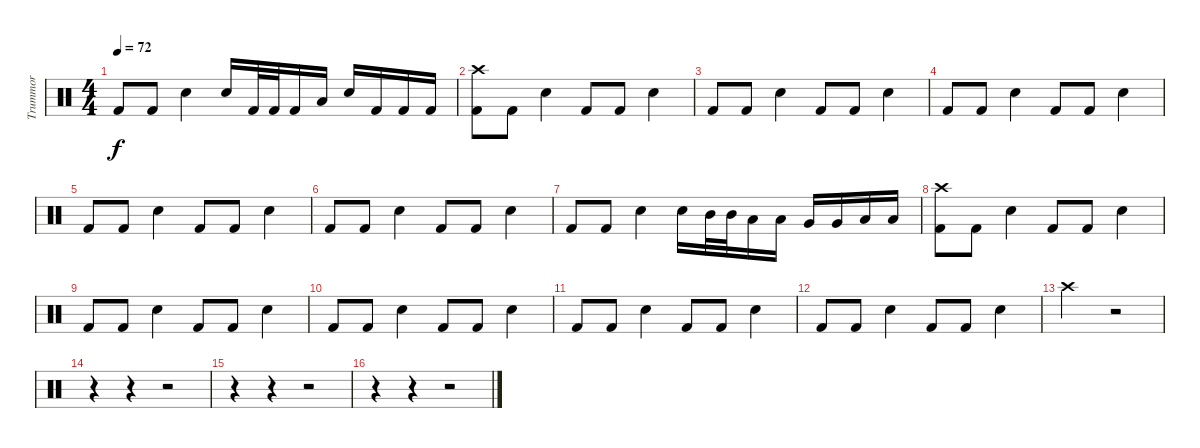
\track ("Trummor" "Trummor") {instrument percussion}
\staff {score}
\articulation defaults
\ts (4 4)
\tempo 72
\clef neutral
\ks c "Kick (hit) 2".8{dy f} "Kick (hit) 2".8 "Snare (hit) 2".4 "Snare (hit) 2".16 "Kick (hit) 2".32 "Kick (hit) 2".32 "Kick (hit) 2".16 "Low Floor Tom (hit)".16 "Snare (hit) 2".16 "Kick (hit) 2".16 "Kick (hit) 2".16 "Kick (hit) 2".16
|
("Crash high (hit)" "Kick (hit) 2").8 "Kick (hit) 2".8 "Snare (hit) 2".4 "Kick (hit) 2".8 "Kick (hit) 2".8 "Snare (hit) 2".4 |
"Kick (hit) 2".8 "Kick (hit) 2".8 "Snare (hit) 2".4 "Kick (hit) 2".8 "Kick (hit) 2".8 "Snare (hit) 2".4 |
"Kick (hit) 2".8 "Kick (hit) 2".8 "Snare (hit) 2".4 "Kick (hit) 2".8 "Kick (hit) 2".8 "Snare (hit) 2".4 |
"Kick (hit) 2".8 "Kick (hit) 2".8 "Snare (hit) 2".4 "Kick (hit) 2".8 "Kick (hit) 2".8 "Snare (hit) 2".4 |
"Kick (hit) 2".8 "Kick (hit) 2".8 "Snare (hit) 2".4 "Kick (hit) 2".8 "Kick (hit) 2".8 "Snare (hit) 2".4 |
"Kick (hit) 2".8 "Kick (hit) 2".8 "Snare (hit) 2".4 "Snare (hit) 2".16 "Mid Tom (hit)".32 "Mid Tom (hit)".32 "Low Tom (hit)".16 "Low Tom (hit)".16 "Very Low Tom (hit)".16 "Very Low Tom (hit)".16 "Low Floor Tom (hit)".16 "Low Floor Tom (hit)".16 |
("Crash high (hit)" "Kick (hit) 2").8 "Kick (hit) 2".8 "Snare (hit) 2".4 "Kick (hit) 2".8 "Kick (hit) 2".8 "Snare (hit) 2".4 |
"Kick (hit) 2".8 "Kick (hit) 2".8 "Snare (hit) 2".4 "Kick (hit) 2".8 "Kick (hit) 2".8 "Snare (hit) 2".4 |
"Kick (hit) 2".8 "Kick (hit) 2".8 "Snare (hit) 2".4 "Kick (hit) 2".8 "Kick (hit) 2".8 "Snare (hit) 2".4 |
"Kick (hit) 2".8 "Kick (hit) 2".8 "Snare (hit) 2".4 "Kick (hit) 2".8 "Kick (hit) 2".8 "Snare (hit) 2".4 |
"Kick (hit) 2".8 "Kick (hit) 2".8 "Snare (hit) 2".4 "Kick (hit) 2".8 "Kick (hit) 2".8 "Snare (hit) 2".4 |
"Crash high (hit)".2 r.2 |
r.4 r.4 r.2 |
r.4 r.4 r.2 |
r.4 r.4 r.2
